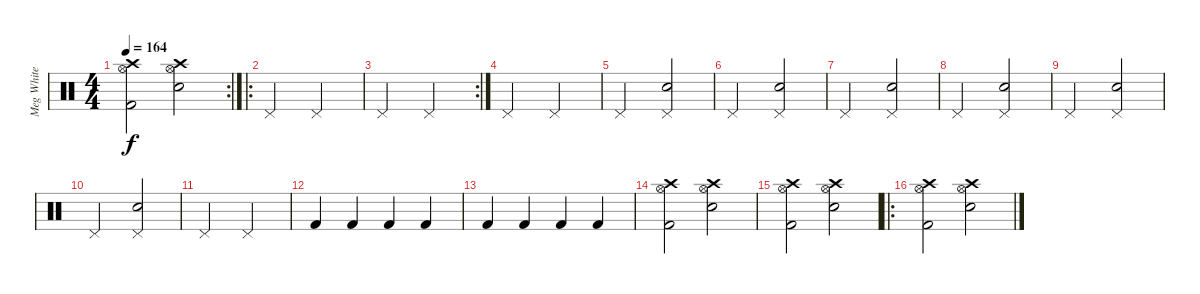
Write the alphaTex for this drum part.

\track ("Meg White" "Meg White") {instrument percussion}
\staff {score}
\articulation defaults
\rc 2
\ts (4 4)
\tempo 164
\clef neutral
\ks c
("Crash high (hit)" "Hi-Hat (open)" "Kick (hit) 2").2{dy f} ("Crash high (hit)" "Hi-Hat (open)" "Electric Snare (hit)").2 |
\ro "Pedal Hi-Hat (hit)".2 "Pedal Hi-Hat (hit)".2
|
\rc 2 "Pedal Hi-Hat (hit)".2 "Pedal Hi-Hat (hit)".2
|
"Pedal Hi-Hat (hit)".2 "Pedal Hi-Hat (hit)".2 |
"Pedal Hi-Hat (hit)".2 ("Pedal Hi-Hat (hit)" "Electric Snare (hit)").2 |
"Pedal Hi-Hat (hit)".2 ("Pedal Hi-Hat (hit)" "Electric Snare (hit)").2 |
"Pedal Hi-Hat (hit)".2 ("Pedal Hi-Hat (hit)" "Electric Snare (hit)").2 |
"Pedal Hi-Hat (hit)".2 ("Pedal Hi-Hat (hit)" "Electric Snare (hit)").2 |
"Pedal Hi-Hat (hit)".2 ("Pedal Hi-Hat (hit)" "Electric Snare (hit)").2 |
"Pedal Hi-Hat (hit)".2 ("Pedal Hi-Hat (hit)" "Electric Snare (hit)").2 |
"Pedal Hi-Hat (hit)".2 "Pedal Hi-Hat (hit)".2 |
"Kick (hit) 2".4 "Kick (hit) 2".4 "Kick (hit) 2".4 "Kick (hit) 2".4 |
"Kick (hit) 2".4 "Kick (hit) 2".4 "Kick (hit) 2".4 "Kick (hit) 2".4 |
("Crash high (hit)" "Hi-Hat (open)" "Kick (hit) 2").2 ("Crash high (hit)" "Hi-Hat (open)" "Electric Snare (hit)").2 |
("Crash high (hit)" "Hi-Hat (open)" "Kick (hit) 2").2 ("Crash high (hit)" "Hi-Hat (open)" "Electric Snare (hit)").2 |
\ro
("Crash high (hit)" "Hi-Hat (open)" "Kick (hit) 2").2 ("Crash high (hit)" "Hi-Hat (open)" "Electric Snare (hit)").2
